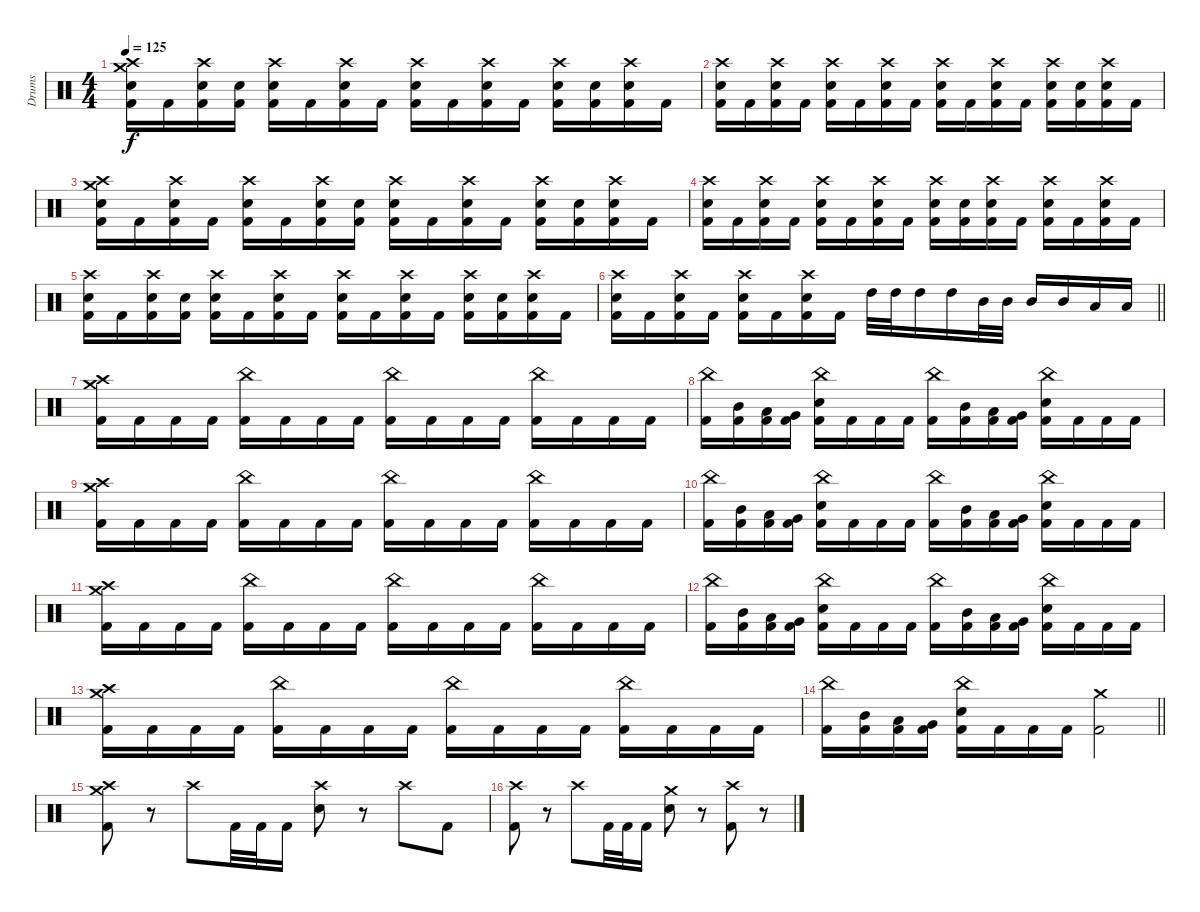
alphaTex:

\track ("Drums" "Drums") {instrument percussion}
\staff {score}
\articulation defaults
\ts (4 4)
\tempo 125
\clef neutral
\ks c
("Crash medium (hit)" "Crash high (hit)" "Electric Snare (hit)" "Kick (hit) 2").16{dy f} "Kick (hit) 2".16 ("Crash high (hit)" "Electric Snare (hit)" "Kick (hit) 2").16 ("Electric Snare (hit)" "Kick (hit) 2").16 ("Crash high (hit)" "Electric Snare (hit)" "Kick (hit) 2").16 "Kick (hit) 2".16 ("Crash high (hit)" "Electric Snare (hit)" "Kick (hit) 2").16 "Kick (hit) 2".16 ("Crash high (hit)" "Electric Snare (hit)" "Kick (hit) 2").16 "Kick (hit) 2".16 ("Crash high (hit)" "Electric Snare (hit)" "Kick (hit) 2").16 "Kick (hit) 2".16 ("Crash high (hit)" "Electric Snare (hit)" "Kick (hit) 2").16 ("Electric Snare (hit)" "Kick (hit) 2").16 ("Crash high (hit)" "Electric Snare (hit)" "Kick (hit) 2").16 "Kick (hit) 2".16 |
("Crash high (hit)" "Electric Snare (hit)" "Kick (hit) 2").16 "Kick (hit) 2".16 ("Crash high (hit)" "Electric Snare (hit)" "Kick (hit) 2").16 "Kick (hit) 2".16 ("Crash high (hit)" "Electric Snare (hit)" "Kick (hit) 2").16 "Kick (hit) 2".16 ("Crash high (hit)" "Electric Snare (hit)" "Kick (hit) 2").16 "Kick (hit) 2".16 ("Crash high (hit)" "Electric Snare (hit)" "Kick (hit) 2").16 "Kick (hit) 2".16 ("Crash high (hit)" "Electric Snare (hit)" "Kick (hit) 2").16 "Kick (hit) 2".16 ("Crash high (hit)" "Electric Snare (hit)" "Kick (hit) 2").16 ("Electric Snare (hit)" "Kick (hit) 2").16 ("Crash high (hit)" "Electric Snare (hit)" "Kick (hit) 2").16 "Kick (hit) 2".16 |
("Crash medium (hit)" "Crash high (hit)" "Electric Snare (hit)" "Kick (hit) 2").16 "Kick (hit) 2".16 ("Crash high (hit)" "Electric Snare (hit)" "Kick (hit) 2").16 "Kick (hit) 2".16 ("Crash high (hit)" "Electric Snare (hit)" "Kick (hit) 2").16 "Kick (hit) 2".16 ("Crash high (hit)" "Electric Snare (hit)" "Kick (hit) 2").16 ("Electric Snare (hit)" "Kick (hit) 2").16 ("Crash high (hit)" "Electric Snare (hit)" "Kick (hit) 2").16 "Kick (hit) 2".16 ("Crash high (hit)" "Electric Snare (hit)" "Kick (hit) 2").16 "Kick (hit) 2".16 ("Crash high (hit)" "Electric Snare (hit)" "Kick (hit) 2").16 ("Electric Snare (hit)" "Kick (hit) 2").16 ("Crash high (hit)" "Electric Snare (hit)" "Kick (hit) 2").16 "Kick (hit) 2".16 |
("Crash high (hit)" "Electric Snare (hit)" "Kick (hit) 2").16 "Kick (hit) 2".16 ("Crash high (hit)" "Electric Snare (hit)" "Kick (hit) 2").16 "Kick (hit) 2".16 ("Crash high (hit)" "Electric Snare (hit)" "Kick (hit) 2").16 "Kick (hit) 2".16 ("Crash high (hit)" "Electric Snare (hit)" "Kick (hit) 2").16 "Kick (hit) 2".16 ("Crash high (hit)" "Electric Snare (hit)" "Kick (hit) 2").16 ("Electric Snare (hit)" "Kick (hit) 2").16 ("Crash high (hit)" "Electric Snare (hit)" "Kick (hit) 2").16 "Kick (hit) 2".16 ("Crash high (hit)" "Electric Snare (hit)" "Kick (hit) 2").16 "Kick (hit) 2".16 ("Crash high (hit)" "Electric Snare (hit)" "Kick (hit) 2").16 "Kick (hit) 2".16 |
("Crash high (hit)" "Electric Snare (hit)" "Kick (hit) 2").16 "Kick (hit) 2".16 ("Crash high (hit)" "Electric Snare (hit)" "Kick (hit) 2").16 ("Electric Snare (hit)" "Kick (hit) 2").16 ("Crash high (hit)" "Electric Snare (hit)" "Kick (hit) 2").16 "Kick (hit) 2".16 ("Crash high (hit)" "Electric Snare (hit)" "Kick (hit) 2").16 "Kick (hit) 2".16 ("Crash high (hit)" "Electric Snare (hit)" "Kick (hit) 2").16 "Kick (hit) 2".16 ("Crash high (hit)" "Electric Snare (hit)" "Kick (hit) 2").16 "Kick (hit) 2".16 ("Crash high (hit)" "Electric Snare (hit)" "Kick (hit) 2").16 ("Electric Snare (hit)" "Kick (hit) 2").16 ("Crash high (hit)" "Electric Snare (hit)" "Kick (hit) 2").16 "Kick (hit) 2".16 |
\barLineRight lightlight
("Crash high (hit)" "Electric Snare (hit)" "Kick (hit) 2").16 "Kick (hit) 2".16 ("Crash high (hit)" "Electric Snare (hit)" "Kick (hit) 2").16 "Kick (hit) 2".16 ("Crash high (hit)" "Electric Snare (hit)" "Kick (hit) 2").16 "Kick (hit) 2".16 ("Crash high (hit)" "Electric Snare (hit)" "Kick (hit) 2").16 "Kick (hit) 2".16 "High Tom (hit)".32 "High Tom (hit)".32 "High Tom (hit)".16 "High Tom (hit)".16 "Mid Tom (hit)".32 "Mid Tom (hit)".32 "Mid Tom (hit)".16 "Mid Tom (hit)".16 "Low Tom (hit)".16 "Low Tom (hit)".16 |
\section ("" "")
("Crash medium (hit)" "Crash high (hit)" "Kick (hit) 2").16 "Kick (hit) 2".16 "Kick (hit) 2".16 "Kick (hit) 2".16 ("China (hit)" "Kick (hit) 2").16 "Kick (hit) 2".16 "Kick (hit) 2".16 "Kick (hit) 2".16 ("China (hit)" "Kick (hit) 2").16 "Kick (hit) 2".16 "Kick (hit) 2".16 "Kick (hit) 2".16 ("China (hit)" "Kick (hit) 2").16 "Kick (hit) 2".16 "Kick (hit) 2".16 "Kick (hit) 2".16 |
("China (hit)" "Kick (hit) 2").16 ("Mid Tom (hit)" "Kick (hit) 2").16 ("Low Tom (hit)" "Kick (hit) 2").16 ("Very Low Tom (hit)" "Kick (hit) 2").16 ("China (hit)" "Electric Snare (hit)" "Kick (hit) 2").16 "Kick (hit) 2".16 "Kick (hit) 2".16 "Kick (hit) 2".16 ("China (hit)" "Kick (hit) 2").16 ("Mid Tom (hit)" "Kick (hit) 2").16 ("Low Tom (hit)" "Kick (hit) 2").16 ("Very Low Tom (hit)" "Kick (hit) 2").16 ("China (hit)" "Electric Snare (hit)" "Kick (hit) 2").16 "Kick (hit) 2".16 "Kick (hit) 2".16 "Kick (hit) 2".16 |
("Crash medium (hit)" "Crash high (hit)" "Kick (hit) 2").16 "Kick (hit) 2".16 "Kick (hit) 2".16 "Kick (hit) 2".16 ("China (hit)" "Kick (hit) 2").16 "Kick (hit) 2".16 "Kick (hit) 2".16 "Kick (hit) 2".16 ("China (hit)" "Kick (hit) 2").16 "Kick (hit) 2".16 "Kick (hit) 2".16 "Kick (hit) 2".16 ("China (hit)" "Kick (hit) 2").16 "Kick (hit) 2".16 "Kick (hit) 2".16 "Kick (hit) 2".16 |
("China (hit)" "Kick (hit) 2").16 ("Mid Tom (hit)" "Kick (hit) 2").16 ("Low Tom (hit)" "Kick (hit) 2").16 ("Very Low Tom (hit)" "Kick (hit) 2").16 ("China (hit)" "Electric Snare (hit)" "Kick (hit) 2").16 "Kick (hit) 2".16 "Kick (hit) 2".16 "Kick (hit) 2".16 ("China (hit)" "Kick (hit) 2").16 ("Mid Tom (hit)" "Kick (hit) 2").16 ("Low Tom (hit)" "Kick (hit) 2").16 ("Very Low Tom (hit)" "Kick (hit) 2").16 ("China (hit)" "Electric Snare (hit)" "Kick (hit) 2").16 "Kick (hit) 2".16 "Kick (hit) 2".16 "Kick (hit) 2".16 |
("Crash medium (hit)" "Crash high (hit)" "Kick (hit) 2").16 "Kick (hit) 2".16 "Kick (hit) 2".16 "Kick (hit) 2".16 ("China (hit)" "Kick (hit) 2").16 "Kick (hit) 2".16 "Kick (hit) 2".16 "Kick (hit) 2".16 ("China (hit)" "Kick (hit) 2").16 "Kick (hit) 2".16 "Kick (hit) 2".16 "Kick (hit) 2".16 ("China (hit)" "Kick (hit) 2").16 "Kick (hit) 2".16 "Kick (hit) 2".16 "Kick (hit) 2".16 |
("China (hit)" "Kick (hit) 2").16 ("Mid Tom (hit)" "Kick (hit) 2").16 ("Low Tom (hit)" "Kick (hit) 2").16 ("Very Low Tom (hit)" "Kick (hit) 2").16 ("China (hit)" "Electric Snare (hit)" "Kick (hit) 2").16 "Kick (hit) 2".16 "Kick (hit) 2".16 "Kick (hit) 2".16 ("China (hit)" "Kick (hit) 2").16 ("Mid Tom (hit)" "Kick (hit) 2").16 ("Low Tom (hit)" "Kick (hit) 2").16 ("Very Low Tom (hit)" "Kick (hit) 2").16 ("China (hit)" "Electric Snare (hit)" "Kick (hit) 2").16 "Kick (hit) 2".16 "Kick (hit) 2".16 "Kick (hit) 2".16 |
("Crash medium (hit)" "Crash high (hit)" "Kick (hit) 2").16 "Kick (hit) 2".16 "Kick (hit) 2".16 "Kick (hit) 2".16 ("China (hit)" "Kick (hit) 2").16 "Kick (hit) 2".16 "Kick (hit) 2".16 "Kick (hit) 2".16 ("China (hit)" "Kick (hit) 2").16 "Kick (hit) 2".16 "Kick (hit) 2".16 "Kick (hit) 2".16 ("China (hit)" "Kick (hit) 2").16 "Kick (hit) 2".16 "Kick (hit) 2".16 "Kick (hit) 2".16 |
\barLineRight lightlight
("China (hit)" "Kick (hit) 2").16 ("Mid Tom (hit)" "Kick (hit) 2").16 ("Low Tom (hit)" "Kick (hit) 2").16 ("Very Low Tom (hit)" "Kick (hit) 2").16 ("China (hit)" "Electric Snare (hit)" "Kick (hit) 2").16 "Kick (hit) 2".16 "Kick (hit) 2".16 "Kick (hit) 2".16 ("Crash medium (hit)" "Kick (hit) 2").2 |
\section ("" "")
("Crash medium (hit)" "Crash high (hit)" "Kick (hit) 2").8 r.8 "Crash high (hit)".8 "Kick (hit) 2".32 "Kick (hit) 2".32 "Kick (hit) 2".16 ("Crash high (hit)" "Electric Snare (hit)").8 r.8 "Crash high (hit)".8 "Kick (hit) 2".8 |
("Crash high (hit)" "Kick (hit) 2").8 r.8 "Crash high (hit)".8 "Kick (hit) 2".32 "Kick (hit) 2".32 "Kick (hit) 2".16 ("Crash medium (hit)" "Electric Snare (hit)").8 r.8 ("Crash high (hit)" "Kick (hit) 2").8 r.8
